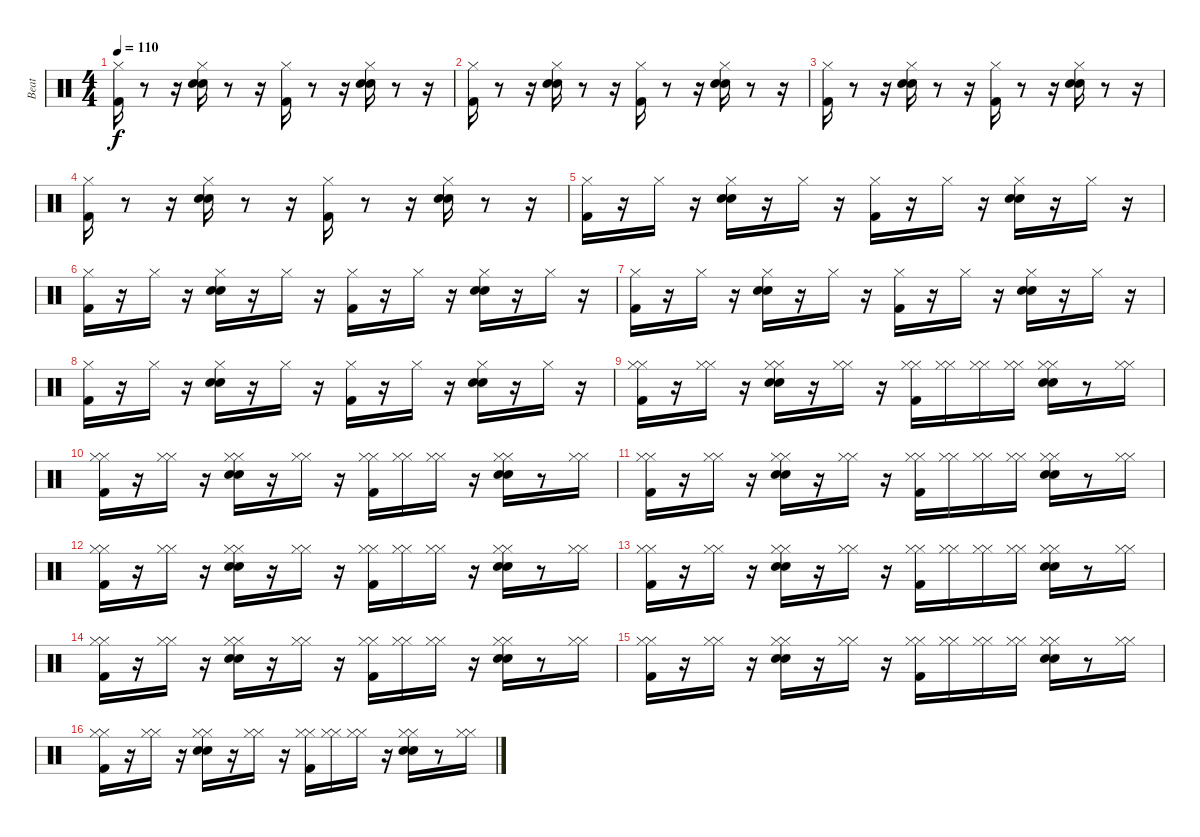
\track ("Beat" "Beat") {instrument percussion}
\staff {score}
\articulation defaults
\ts (4 4)
\tempo 110
\clef neutral
\ks c
("Hi-Hat (closed)" "Kick (hit) 2").16{dy f} r.8 r.16 ("Hi-Hat (closed)" "Electric Snare (hit)" "Hand Clap (hit)").16 r.8 r.16 ("Hi-Hat (closed)" "Kick (hit) 2").16 r.8 r.16 ("Hi-Hat (closed)" "Electric Snare (hit)" "Hand Clap (hit)").16 r.8 r.16 |
("Hi-Hat (closed)" "Kick (hit) 2").16 r.8 r.16 ("Hi-Hat (closed)" "Electric Snare (hit)" "Hand Clap (hit)").16 r.8 r.16 ("Hi-Hat (closed)" "Kick (hit) 2").16 r.8 r.16 ("Hi-Hat (closed)" "Electric Snare (hit)" "Hand Clap (hit)").16 r.8 r.16 |
("Hi-Hat (closed)" "Kick (hit) 2").16 r.8 r.16 ("Hi-Hat (closed)" "Electric Snare (hit)" "Hand Clap (hit)").16 r.8 r.16 ("Hi-Hat (closed)" "Kick (hit) 2").16 r.8 r.16 ("Hi-Hat (closed)" "Electric Snare (hit)" "Hand Clap (hit)").16 r.8 r.16 |
("Hi-Hat (closed)" "Kick (hit) 2").16 r.8 r.16 ("Hi-Hat (closed)" "Electric Snare (hit)" "Hand Clap (hit)").16 r.8 r.16 ("Hi-Hat (closed)" "Kick (hit) 2").16 r.8 r.16 ("Hi-Hat (closed)" "Electric Snare (hit)" "Hand Clap (hit)").16 r.8 r.16 |
("Hi-Hat (closed)" "Kick (hit) 2").16 r.16 "Hi-Hat (closed)".16 r.16 ("Hi-Hat (closed)" "Electric Snare (hit)" "Hand Clap (hit)").16 r.16 "Hi-Hat (closed)".16 r.16 ("Hi-Hat (closed)" "Kick (hit) 2").16 r.16 "Hi-Hat (closed)".16 r.16 ("Hi-Hat (closed)" "Electric Snare (hit)" "Hand Clap (hit)").16 r.16 "Hi-Hat (closed)".16 r.16 |
("Hi-Hat (closed)" "Kick (hit) 2").16 r.16 "Hi-Hat (closed)".16 r.16 ("Hi-Hat (closed)" "Electric Snare (hit)" "Hand Clap (hit)").16 r.16 "Hi-Hat (closed)".16 r.16 ("Hi-Hat (closed)" "Kick (hit) 2").16 r.16 "Hi-Hat (closed)".16 r.16 ("Hi-Hat (closed)" "Electric Snare (hit)" "Hand Clap (hit)").16 r.16 "Hi-Hat (closed)".16 r.16 |
("Hi-Hat (closed)" "Kick (hit) 2").16 r.16 "Hi-Hat (closed)".16 r.16 ("Hi-Hat (closed)" "Electric Snare (hit)" "Hand Clap (hit)").16 r.16 "Hi-Hat (closed)".16 r.16 ("Hi-Hat (closed)" "Kick (hit) 2").16 r.16 "Hi-Hat (closed)".16 r.16 ("Hi-Hat (closed)" "Electric Snare (hit)" "Hand Clap (hit)").16 r.16 "Hi-Hat (closed)".16 r.16 |
("Hi-Hat (closed)" "Kick (hit) 2").16 r.16 "Hi-Hat (closed)".16 r.16 ("Hi-Hat (closed)" "Electric Snare (hit)" "Hand Clap (hit)").16 r.16 "Hi-Hat (closed)".16 r.16 ("Hi-Hat (closed)" "Kick (hit) 2").16 r.16 "Hi-Hat (closed)".16 r.16 ("Hi-Hat (closed)" "Electric Snare (hit)" "Hand Clap (hit)").16 r.16 "Hi-Hat (closed)".16 r.16 |
("Hi-Hat (closed)" "Hi-Hat (closed)" "Kick (hit) 2").16 r.16 ("Hi-Hat (closed)" "Hi-Hat (closed)").16 r.16 ("Hi-Hat (closed)" "Hi-Hat (closed)" "Electric Snare (hit)" "Hand Clap (hit)").16 r.16 ("Hi-Hat (closed)" "Hi-Hat (closed)").16 r.16 ("Hi-Hat (closed)" "Hi-Hat (closed)" "Kick (hit) 2").16 ("Hi-Hat (closed)" "Hi-Hat (closed)").16 ("Hi-Hat (closed)" "Hi-Hat (closed)").16 ("Hi-Hat (closed)" "Hi-Hat (closed)").16 ("Hi-Hat (closed)" "Hi-Hat (closed)" "Electric Snare (hit)" "Hand Clap (hit)").16 r.8 ("Hi-Hat (closed)" "Hi-Hat (closed)").16 |
("Hi-Hat (closed)" "Hi-Hat (closed)" "Kick (hit) 2").16 r.16 ("Hi-Hat (closed)" "Hi-Hat (closed)").16 r.16 ("Hi-Hat (closed)" "Hi-Hat (closed)" "Electric Snare (hit)" "Hand Clap (hit)").16 r.16 ("Hi-Hat (closed)" "Hi-Hat (closed)").16 r.16 ("Hi-Hat (closed)" "Hi-Hat (closed)" "Kick (hit) 2").16 ("Hi-Hat (closed)" "Hi-Hat (closed)").16 ("Hi-Hat (closed)" "Hi-Hat (closed)").16 r.16 ("Hi-Hat (closed)" "Hi-Hat (closed)" "Electric Snare (hit)" "Hand Clap (hit)").16 r.8 ("Hi-Hat (closed)" "Hi-Hat (closed)").16 |
("Hi-Hat (closed)" "Hi-Hat (closed)" "Kick (hit) 2").16 r.16 ("Hi-Hat (closed)" "Hi-Hat (closed)").16 r.16 ("Hi-Hat (closed)" "Hi-Hat (closed)" "Electric Snare (hit)" "Hand Clap (hit)").16 r.16 ("Hi-Hat (closed)" "Hi-Hat (closed)").16 r.16 ("Hi-Hat (closed)" "Hi-Hat (closed)" "Kick (hit) 2").16 ("Hi-Hat (closed)" "Hi-Hat (closed)").16 ("Hi-Hat (closed)" "Hi-Hat (closed)").16 ("Hi-Hat (closed)" "Hi-Hat (closed)").16 ("Hi-Hat (closed)" "Hi-Hat (closed)" "Electric Snare (hit)" "Hand Clap (hit)").16 r.8 ("Hi-Hat (closed)" "Hi-Hat (closed)").16 |
("Hi-Hat (closed)" "Hi-Hat (closed)" "Kick (hit) 2").16 r.16 ("Hi-Hat (closed)" "Hi-Hat (closed)").16 r.16 ("Hi-Hat (closed)" "Hi-Hat (closed)" "Electric Snare (hit)" "Hand Clap (hit)").16 r.16 ("Hi-Hat (closed)" "Hi-Hat (closed)").16 r.16 ("Hi-Hat (closed)" "Hi-Hat (closed)" "Kick (hit) 2").16 ("Hi-Hat (closed)" "Hi-Hat (closed)").16 ("Hi-Hat (closed)" "Hi-Hat (closed)").16 r.16 ("Hi-Hat (closed)" "Hi-Hat (closed)" "Electric Snare (hit)" "Hand Clap (hit)").16 r.8 ("Hi-Hat (closed)" "Hi-Hat (closed)").16 |
("Hi-Hat (closed)" "Hi-Hat (closed)" "Kick (hit) 2").16 r.16 ("Hi-Hat (closed)" "Hi-Hat (closed)").16 r.16 ("Hi-Hat (closed)" "Hi-Hat (closed)" "Electric Snare (hit)" "Hand Clap (hit)").16 r.16 ("Hi-Hat (closed)" "Hi-Hat (closed)").16 r.16 ("Hi-Hat (closed)" "Hi-Hat (closed)" "Kick (hit) 2").16 ("Hi-Hat (closed)" "Hi-Hat (closed)").16 ("Hi-Hat (closed)" "Hi-Hat (closed)").16 ("Hi-Hat (closed)" "Hi-Hat (closed)").16 ("Hi-Hat (closed)" "Hi-Hat (closed)" "Electric Snare (hit)" "Hand Clap (hit)").16 r.8 ("Hi-Hat (closed)" "Hi-Hat (closed)").16 |
("Hi-Hat (closed)" "Hi-Hat (closed)" "Kick (hit) 2").16 r.16 ("Hi-Hat (closed)" "Hi-Hat (closed)").16 r.16 ("Hi-Hat (closed)" "Hi-Hat (closed)" "Electric Snare (hit)" "Hand Clap (hit)").16 r.16 ("Hi-Hat (closed)" "Hi-Hat (closed)").16 r.16 ("Hi-Hat (closed)" "Hi-Hat (closed)" "Kick (hit) 2").16 ("Hi-Hat (closed)" "Hi-Hat (closed)").16 ("Hi-Hat (closed)" "Hi-Hat (closed)").16 r.16 ("Hi-Hat (closed)" "Hi-Hat (closed)" "Electric Snare (hit)" "Hand Clap (hit)").16 r.8 ("Hi-Hat (closed)" "Hi-Hat (closed)").16 |
("Hi-Hat (closed)" "Hi-Hat (closed)" "Kick (hit) 2").16 r.16 ("Hi-Hat (closed)" "Hi-Hat (closed)").16 r.16 ("Hi-Hat (closed)" "Hi-Hat (closed)" "Electric Snare (hit)" "Hand Clap (hit)").16 r.16 ("Hi-Hat (closed)" "Hi-Hat (closed)").16 r.16 ("Hi-Hat (closed)" "Hi-Hat (closed)" "Kick (hit) 2").16 ("Hi-Hat (closed)" "Hi-Hat (closed)").16 ("Hi-Hat (closed)" "Hi-Hat (closed)").16 ("Hi-Hat (closed)" "Hi-Hat (closed)").16 ("Hi-Hat (closed)" "Hi-Hat (closed)" "Electric Snare (hit)" "Hand Clap (hit)").16 r.8 ("Hi-Hat (closed)" "Hi-Hat (closed)").16 |
("Hi-Hat (closed)" "Hi-Hat (closed)" "Kick (hit) 2").16 r.16 ("Hi-Hat (closed)" "Hi-Hat (closed)").16 r.16 ("Hi-Hat (closed)" "Hi-Hat (closed)" "Electric Snare (hit)" "Hand Clap (hit)").16 r.16 ("Hi-Hat (closed)" "Hi-Hat (closed)").16 r.16 ("Hi-Hat (closed)" "Hi-Hat (closed)" "Kick (hit) 2").16 ("Hi-Hat (closed)" "Hi-Hat (closed)").16 ("Hi-Hat (closed)" "Hi-Hat (closed)").16 r.16 ("Hi-Hat (closed)" "Hi-Hat (closed)" "Electric Snare (hit)" "Hand Clap (hit)").16 r.8 ("Hi-Hat (closed)" "Hi-Hat (closed)").16
